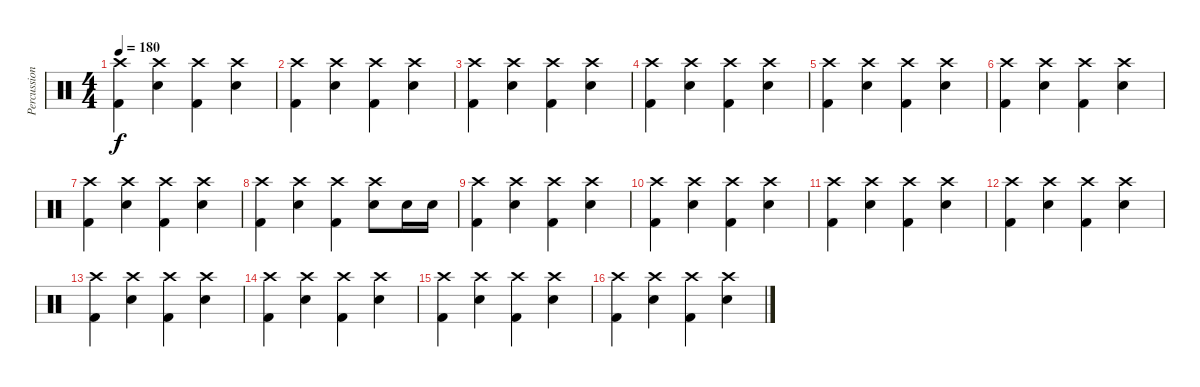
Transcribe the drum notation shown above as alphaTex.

\track ("Percussions" "Percussion") {instrument percussion}
\staff {score}
\articulation defaults
\ts (4 4)
\tempo 180
\clef neutral
\ks c
("Crash high (hit)" "Kick (hit) 2").4{dy f} ("Crash high (hit)" "Snare (hit) 2").4 ("Crash high (hit)" "Kick (hit) 2").4 ("Crash high (hit)" "Snare (hit) 2").4 |
("Crash high (hit)" "Kick (hit) 2").4 ("Crash high (hit)" "Snare (hit) 2").4 ("Crash high (hit)" "Kick (hit) 2").4 ("Crash high (hit)" "Snare (hit) 2").4 |
("Crash high (hit)" "Kick (hit) 2").4 ("Crash high (hit)" "Snare (hit) 2").4 ("Crash high (hit)" "Kick (hit) 2").4 ("Crash high (hit)" "Snare (hit) 2").4 |
("Crash high (hit)" "Kick (hit) 2").4 ("Crash high (hit)" "Snare (hit) 2").4 ("Crash high (hit)" "Kick (hit) 2").4 ("Crash high (hit)" "Snare (hit) 2").4 |
("Crash high (hit)" "Kick (hit) 2").4 ("Crash high (hit)" "Snare (hit) 2").4 ("Crash high (hit)" "Kick (hit) 2").4 ("Crash high (hit)" "Snare (hit) 2").4 |
("Crash high (hit)" "Kick (hit) 2").4 ("Crash high (hit)" "Snare (hit) 2").4 ("Crash high (hit)" "Kick (hit) 2").4 ("Crash high (hit)" "Snare (hit) 2").4 |
("Crash high (hit)" "Kick (hit) 2").4 ("Crash high (hit)" "Snare (hit) 2").4 ("Crash high (hit)" "Kick (hit) 2").4 ("Crash high (hit)" "Snare (hit) 2").4 |
("Crash high (hit)" "Kick (hit) 2").4 ("Crash high (hit)" "Snare (hit) 2").4 ("Crash high (hit)" "Kick (hit) 2").4 ("Crash high (hit)" "Snare (hit) 2").8 "Snare (hit) 2".16 "Snare (hit) 2".16 |
("Crash high (hit)" "Kick (hit) 2").4 ("Crash high (hit)" "Snare (hit) 2").4 ("Crash high (hit)" "Kick (hit) 2").4 ("Crash high (hit)" "Snare (hit) 2").4 |
("Crash high (hit)" "Kick (hit) 2").4 ("Crash high (hit)" "Snare (hit) 2").4 ("Crash high (hit)" "Kick (hit) 2").4 ("Crash high (hit)" "Snare (hit) 2").4 |
("Crash high (hit)" "Kick (hit) 2").4 ("Crash high (hit)" "Snare (hit) 2").4 ("Crash high (hit)" "Kick (hit) 2").4 ("Crash high (hit)" "Snare (hit) 2").4 |
("Crash high (hit)" "Kick (hit) 2").4 ("Crash high (hit)" "Snare (hit) 2").4 ("Crash high (hit)" "Kick (hit) 2").4 ("Crash high (hit)" "Snare (hit) 2").4 |
("Crash high (hit)" "Kick (hit) 2").4 ("Crash high (hit)" "Snare (hit) 2").4 ("Crash high (hit)" "Kick (hit) 2").4 ("Crash high (hit)" "Snare (hit) 2").4 |
("Crash high (hit)" "Kick (hit) 2").4 ("Crash high (hit)" "Snare (hit) 2").4 ("Crash high (hit)" "Kick (hit) 2").4 ("Crash high (hit)" "Snare (hit) 2").4 |
("Crash high (hit)" "Kick (hit) 2").4 ("Crash high (hit)" "Snare (hit) 2").4 ("Crash high (hit)" "Kick (hit) 2").4 ("Crash high (hit)" "Snare (hit) 2").4 |
("Crash high (hit)" "Kick (hit) 2").4 ("Crash high (hit)" "Snare (hit) 2").4 ("Crash high (hit)" "Kick (hit) 2").4 ("Crash high (hit)" "Snare (hit) 2").4
